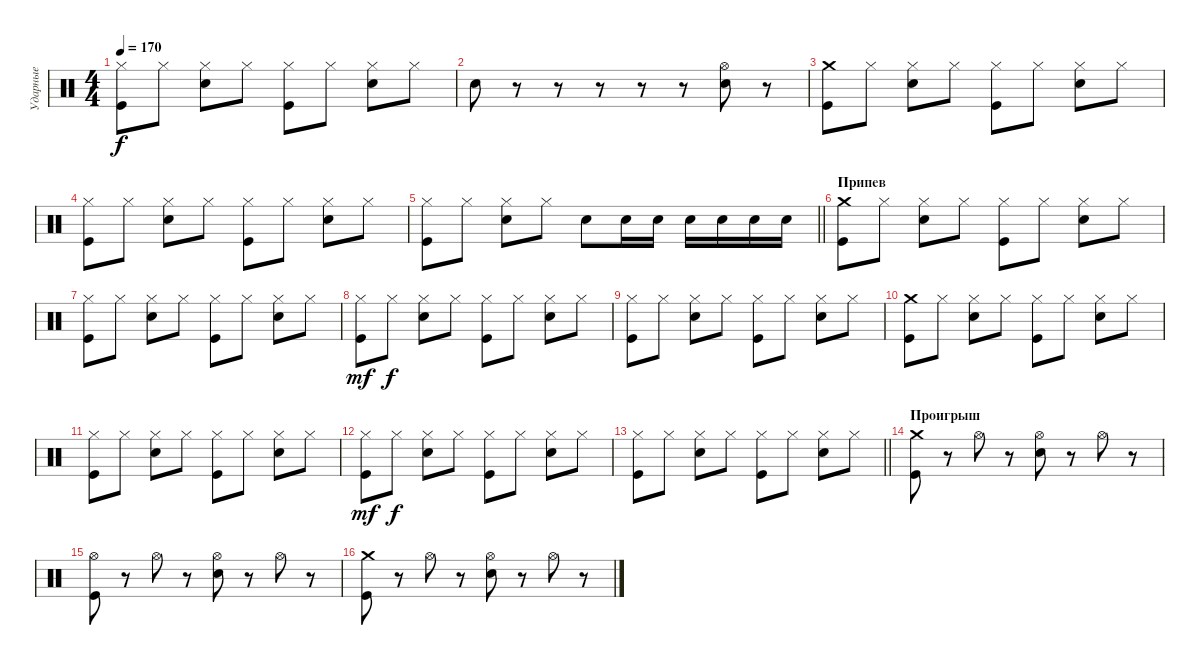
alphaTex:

\track ("Ударные" "Ударные") {instrument percussion}
\staff {score}
\articulation defaults
\ts (4 4)
\tempo 170
\clef neutral
\ks c
("Hi-Hat (closed)" "Kick (hit)").8{dy f} "Hi-Hat (closed)".8 ("Hi-Hat (closed)" "Electric Snare (hit)").8 "Hi-Hat (closed)".8 ("Hi-Hat (closed)" "Kick (hit)").8 "Hi-Hat (closed)".8 ("Hi-Hat (closed)" "Electric Snare (hit)").8 "Hi-Hat (closed)".8 |
"Electric Snare (hit)".8 r.8 r.8 r.8 r.8 r.8 ("Hi-Hat (open)" "Electric Snare (hit)").8 r.8 |
("Crash medium (hit)" "Kick (hit)").8 "Hi-Hat (closed)".8 ("Hi-Hat (closed)" "Electric Snare (hit)").8 "Hi-Hat (closed)".8 ("Hi-Hat (closed)" "Kick (hit)").8 "Hi-Hat (closed)".8 ("Hi-Hat (closed)" "Electric Snare (hit)").8 "Hi-Hat (closed)".8 |
("Hi-Hat (closed)" "Kick (hit)").8 "Hi-Hat (closed)".8 ("Hi-Hat (closed)" "Electric Snare (hit)").8 "Hi-Hat (closed)".8 ("Hi-Hat (closed)" "Kick (hit)").8 "Hi-Hat (closed)".8 ("Hi-Hat (closed)" "Electric Snare (hit)").8 "Hi-Hat (closed)".8 |
\barLineRight lightlight
("Hi-Hat (closed)" "Kick (hit)").8 "Hi-Hat (closed)".8 ("Hi-Hat (closed)" "Electric Snare (hit)").8 "Hi-Hat (closed)".8 "Electric Snare (hit)".8 "Electric Snare (hit)".16 "Electric Snare (hit)".16 "Electric Snare (hit)".16 "Electric Snare (hit)".16 "Electric Snare (hit)".16 "Electric Snare (hit)".16 |
\section ("" "Припев")
("Crash medium (hit)" "Kick (hit)").8 "Hi-Hat (closed)".8 ("Hi-Hat (closed)" "Electric Snare (hit)").8 "Hi-Hat (closed)".8 ("Hi-Hat (closed)" "Kick (hit)").8 "Hi-Hat (closed)".8 ("Hi-Hat (closed)" "Electric Snare (hit)").8 "Hi-Hat (closed)".8 |
("Hi-Hat (closed)" "Kick (hit)").8 "Hi-Hat (closed)".8 ("Hi-Hat (closed)" "Electric Snare (hit)").8 "Hi-Hat (closed)".8 ("Hi-Hat (closed)" "Kick (hit)").8 "Hi-Hat (closed)".8 ("Hi-Hat (closed)" "Electric Snare (hit)").8 "Hi-Hat (closed)".8 |
("Hi-Hat (closed)" "Kick (hit)").8{dy mf} "Hi-Hat (closed)".8{dy f} ("Hi-Hat (closed)" "Electric Snare (hit)").8 "Hi-Hat (closed)".8 ("Hi-Hat (closed)" "Kick (hit)").8 "Hi-Hat (closed)".8 ("Hi-Hat (closed)" "Electric Snare (hit)").8 "Hi-Hat (closed)".8 |
("Hi-Hat (closed)" "Kick (hit)").8 "Hi-Hat (closed)".8 ("Hi-Hat (closed)" "Electric Snare (hit)").8 "Hi-Hat (closed)".8 ("Hi-Hat (closed)" "Kick (hit)").8 "Hi-Hat (closed)".8 ("Hi-Hat (closed)" "Electric Snare (hit)").8 "Hi-Hat (closed)".8 |
("Crash medium (hit)" "Kick (hit)").8 "Hi-Hat (closed)".8 ("Hi-Hat (closed)" "Electric Snare (hit)").8 "Hi-Hat (closed)".8 ("Hi-Hat (closed)" "Kick (hit)").8 "Hi-Hat (closed)".8 ("Hi-Hat (closed)" "Electric Snare (hit)").8 "Hi-Hat (closed)".8 |
("Hi-Hat (closed)" "Kick (hit)").8 "Hi-Hat (closed)".8 ("Hi-Hat (closed)" "Electric Snare (hit)").8 "Hi-Hat (closed)".8 ("Hi-Hat (closed)" "Kick (hit)").8 "Hi-Hat (closed)".8 ("Hi-Hat (closed)" "Electric Snare (hit)").8 "Hi-Hat (closed)".8 |
("Hi-Hat (closed)" "Kick (hit)").8{dy mf} "Hi-Hat (closed)".8{dy f} ("Hi-Hat (closed)" "Electric Snare (hit)").8 "Hi-Hat (closed)".8 ("Hi-Hat (closed)" "Kick (hit)").8 "Hi-Hat (closed)".8 ("Hi-Hat (closed)" "Electric Snare (hit)").8 "Hi-Hat (closed)".8 |
\barLineRight lightlight
("Hi-Hat (closed)" "Kick (hit)").8 "Hi-Hat (closed)".8 ("Hi-Hat (closed)" "Electric Snare (hit)").8 "Hi-Hat (closed)".8 ("Hi-Hat (closed)" "Kick (hit)").8 "Hi-Hat (closed)".8 ("Hi-Hat (closed)" "Electric Snare (hit)").8 "Hi-Hat (closed)".8 |
\section ("" "Проигрыш")
("Crash medium (hit)" "Kick (hit)").8 r.8 "Hi-Hat (open)".8 r.8 ("Hi-Hat (open)" "Electric Snare (hit)").8 r.8 "Hi-Hat (open)".8 r.8 |
("Hi-Hat (open)" "Kick (hit)").8 r.8 "Hi-Hat (open)".8 r.8 ("Hi-Hat (open)" "Electric Snare (hit)").8 r.8 "Hi-Hat (open)".8 r.8 |
("Crash medium (hit)" "Kick (hit)").8 r.8 "Hi-Hat (open)".8 r.8 ("Hi-Hat (open)" "Electric Snare (hit)").8 r.8 "Hi-Hat (open)".8 r.8
